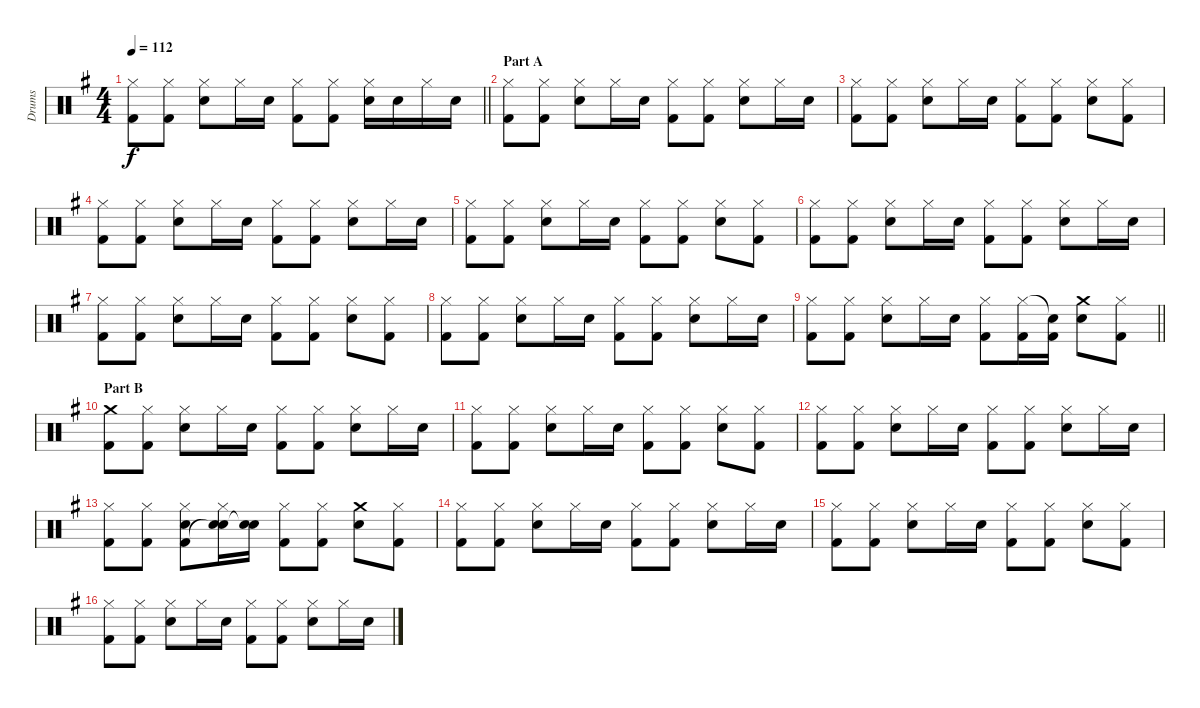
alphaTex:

\track ("Drums" "Drums") {instrument percussion}
\staff {score}
\articulation defaults
\ts (4 4)
\tempo 112
\clef neutral
\barLineRight lightlight
\ks g
("Hi-Hat (closed)" "Kick (hit) 2").8{dy f} ("Hi-Hat (closed)" "Kick (hit) 2").8 ("Hi-Hat (closed)" "Electric Snare (hit)").8 "Hi-Hat (closed)".16 "Electric Snare (hit)".16 ("Hi-Hat (closed)" "Kick (hit) 2").8 ("Hi-Hat (closed)" "Kick (hit) 2").8 ("Hi-Hat (closed)" "Electric Snare (hit)").16 "Electric Snare (hit)".16 "Hi-Hat (closed)".16 "Electric Snare (hit)".16 |
\section ("" "Part A")
("Hi-Hat (closed)" "Kick (hit) 2").8 ("Hi-Hat (closed)" "Kick (hit) 2").8 ("Hi-Hat (closed)" "Electric Snare (hit)").8 "Hi-Hat (closed)".16 "Electric Snare (hit)".16 ("Hi-Hat (closed)" "Kick (hit) 2").8 ("Hi-Hat (closed)" "Kick (hit) 2").8 ("Hi-Hat (closed)" "Electric Snare (hit)").8 "Hi-Hat (closed)".16 "Electric Snare (hit)".16 |
("Hi-Hat (closed)" "Kick (hit) 2").8 ("Hi-Hat (closed)" "Kick (hit) 2").8 ("Hi-Hat (closed)" "Electric Snare (hit)").8 "Hi-Hat (closed)".16 "Electric Snare (hit)".16 ("Hi-Hat (closed)" "Kick (hit) 2").8 ("Hi-Hat (closed)" "Kick (hit) 2").8 ("Hi-Hat (closed)" "Electric Snare (hit)").8 ("Hi-Hat (closed)" "Kick (hit) 2").8 |
("Hi-Hat (closed)" "Kick (hit) 2").8 ("Hi-Hat (closed)" "Kick (hit) 2").8 ("Hi-Hat (closed)" "Electric Snare (hit)").8 "Hi-Hat (closed)".16 "Electric Snare (hit)".16 ("Hi-Hat (closed)" "Kick (hit) 2").8 ("Hi-Hat (closed)" "Kick (hit) 2").8 ("Hi-Hat (closed)" "Electric Snare (hit)").8 "Hi-Hat (closed)".16 "Electric Snare (hit)".16 |
("Hi-Hat (closed)" "Kick (hit) 2").8 ("Hi-Hat (closed)" "Kick (hit) 2").8 ("Hi-Hat (closed)" "Electric Snare (hit)").8 "Hi-Hat (closed)".16 "Electric Snare (hit)".16 ("Hi-Hat (closed)" "Kick (hit) 2").8 ("Hi-Hat (closed)" "Kick (hit) 2").8 ("Hi-Hat (closed)" "Electric Snare (hit)").8 ("Hi-Hat (closed)" "Kick (hit) 2").8 |
("Hi-Hat (closed)" "Kick (hit) 2").8 ("Hi-Hat (closed)" "Kick (hit) 2").8 ("Hi-Hat (closed)" "Electric Snare (hit)").8 "Hi-Hat (closed)".16 "Electric Snare (hit)".16 ("Hi-Hat (closed)" "Kick (hit) 2").8 ("Hi-Hat (closed)" "Kick (hit) 2").8 ("Hi-Hat (closed)" "Electric Snare (hit)").8 "Hi-Hat (closed)".16 "Electric Snare (hit)".16 |
("Hi-Hat (closed)" "Kick (hit) 2").8 ("Hi-Hat (closed)" "Kick (hit) 2").8 ("Hi-Hat (closed)" "Electric Snare (hit)").8 "Hi-Hat (closed)".16 "Electric Snare (hit)".16 ("Hi-Hat (closed)" "Kick (hit) 2").8 ("Hi-Hat (closed)" "Kick (hit) 2").8 ("Hi-Hat (closed)" "Electric Snare (hit)").8 ("Hi-Hat (closed)" "Kick (hit) 2").8 |
("Hi-Hat (closed)" "Kick (hit) 2").8 ("Hi-Hat (closed)" "Kick (hit) 2").8 ("Hi-Hat (closed)" "Electric Snare (hit)").8 "Hi-Hat (closed)".16 "Electric Snare (hit)".16 ("Hi-Hat (closed)" "Kick (hit) 2").8 ("Hi-Hat (closed)" "Kick (hit) 2").8 ("Hi-Hat (closed)" "Electric Snare (hit)").8 "Hi-Hat (closed)".16 "Electric Snare (hit)".16 |
\barLineRight lightlight
("Hi-Hat (closed)" "Kick (hit) 2").8 ("Hi-Hat (closed)" "Kick (hit) 2").8 ("Hi-Hat (closed)" "Electric Snare (hit)").8 "Hi-Hat (closed)".16 "Electric Snare (hit)".16 ("Hi-Hat (closed)" "Kick (hit) 2").8 ("Hi-Hat (closed)" "Kick (hit) 2").16 ("Snare (hit)"{t} "Kick (hit) 2").16 ("Crash medium (hit)" "Electric Snare (hit)").8 ("Hi-Hat (closed)" "Kick (hit) 2").8 |
\section ("" "Part B")
("Crash medium (hit)" "Kick (hit) 2").8 ("Hi-Hat (closed)" "Kick (hit) 2").8 ("Hi-Hat (closed)" "Electric Snare (hit)").8 "Hi-Hat (closed)".16 "Electric Snare (hit)".16 ("Hi-Hat (closed)" "Kick (hit) 2").8 ("Hi-Hat (closed)" "Kick (hit) 2").8 ("Hi-Hat (closed)" "Electric Snare (hit)").8 "Hi-Hat (closed)".16 "Electric Snare (hit)".16 |
("Hi-Hat (closed)" "Kick (hit) 2").8 ("Hi-Hat (closed)" "Kick (hit) 2").8 ("Hi-Hat (closed)" "Electric Snare (hit)").8 "Hi-Hat (closed)".16 "Electric Snare (hit)".16 ("Hi-Hat (closed)" "Kick (hit) 2").8 ("Hi-Hat (closed)" "Kick (hit) 2").8 ("Hi-Hat (closed)" "Electric Snare (hit)").8 ("Hi-Hat (closed)" "Kick (hit) 2").8 |
("Hi-Hat (closed)" "Kick (hit) 2").8 ("Hi-Hat (closed)" "Kick (hit) 2").8 ("Hi-Hat (closed)" "Electric Snare (hit)").8 "Hi-Hat (closed)".16 "Electric Snare (hit)".16 ("Hi-Hat (closed)" "Kick (hit) 2").8 ("Hi-Hat (closed)" "Kick (hit) 2").8 ("Hi-Hat (closed)" "Electric Snare (hit)").8 "Hi-Hat (closed)".16 "Electric Snare (hit)".16 |
("Hi-Hat (closed)" "Kick (hit) 2").8 ("Hi-Hat (closed)" "Kick (hit) 2").8 ("Hi-Hat (closed)" "Electric Snare (hit)" "Kick (hit) 2").8 ("Hi-Hat (closed)" "Electric Snare (hit)" "Snare (hit)"{t}).16 ("Electric Snare (hit)" "Snare (hit)"{t}).16 ("Hi-Hat (closed)" "Kick (hit) 2").8 ("Hi-Hat (closed)" "Kick (hit) 2").8 ("Crash medium (hit)" "Electric Snare (hit)").8 ("Hi-Hat (closed)" "Kick (hit) 2").8 |
("Hi-Hat (closed)" "Kick (hit) 2").8 ("Hi-Hat (closed)" "Kick (hit) 2").8 ("Hi-Hat (closed)" "Electric Snare (hit)").8 "Hi-Hat (closed)".16 "Electric Snare (hit)".16 ("Hi-Hat (closed)" "Kick (hit) 2").8 ("Hi-Hat (closed)" "Kick (hit) 2").8 ("Hi-Hat (closed)" "Electric Snare (hit)").8 "Hi-Hat (closed)".16 "Electric Snare (hit)".16 |
("Hi-Hat (closed)" "Kick (hit) 2").8 ("Hi-Hat (closed)" "Kick (hit) 2").8 ("Hi-Hat (closed)" "Electric Snare (hit)").8 "Hi-Hat (closed)".16 "Electric Snare (hit)".16 ("Hi-Hat (closed)" "Kick (hit) 2").8 ("Hi-Hat (closed)" "Kick (hit) 2").8 ("Hi-Hat (closed)" "Electric Snare (hit)").8 ("Hi-Hat (closed)" "Kick (hit) 2").8 |
("Hi-Hat (closed)" "Kick (hit) 2").8 ("Hi-Hat (closed)" "Kick (hit) 2").8 ("Hi-Hat (closed)" "Electric Snare (hit)").8 "Hi-Hat (closed)".16 "Electric Snare (hit)".16 ("Hi-Hat (closed)" "Kick (hit) 2").8 ("Hi-Hat (closed)" "Kick (hit) 2").8 ("Hi-Hat (closed)" "Electric Snare (hit)").8 "Hi-Hat (closed)".16 "Electric Snare (hit)".16
